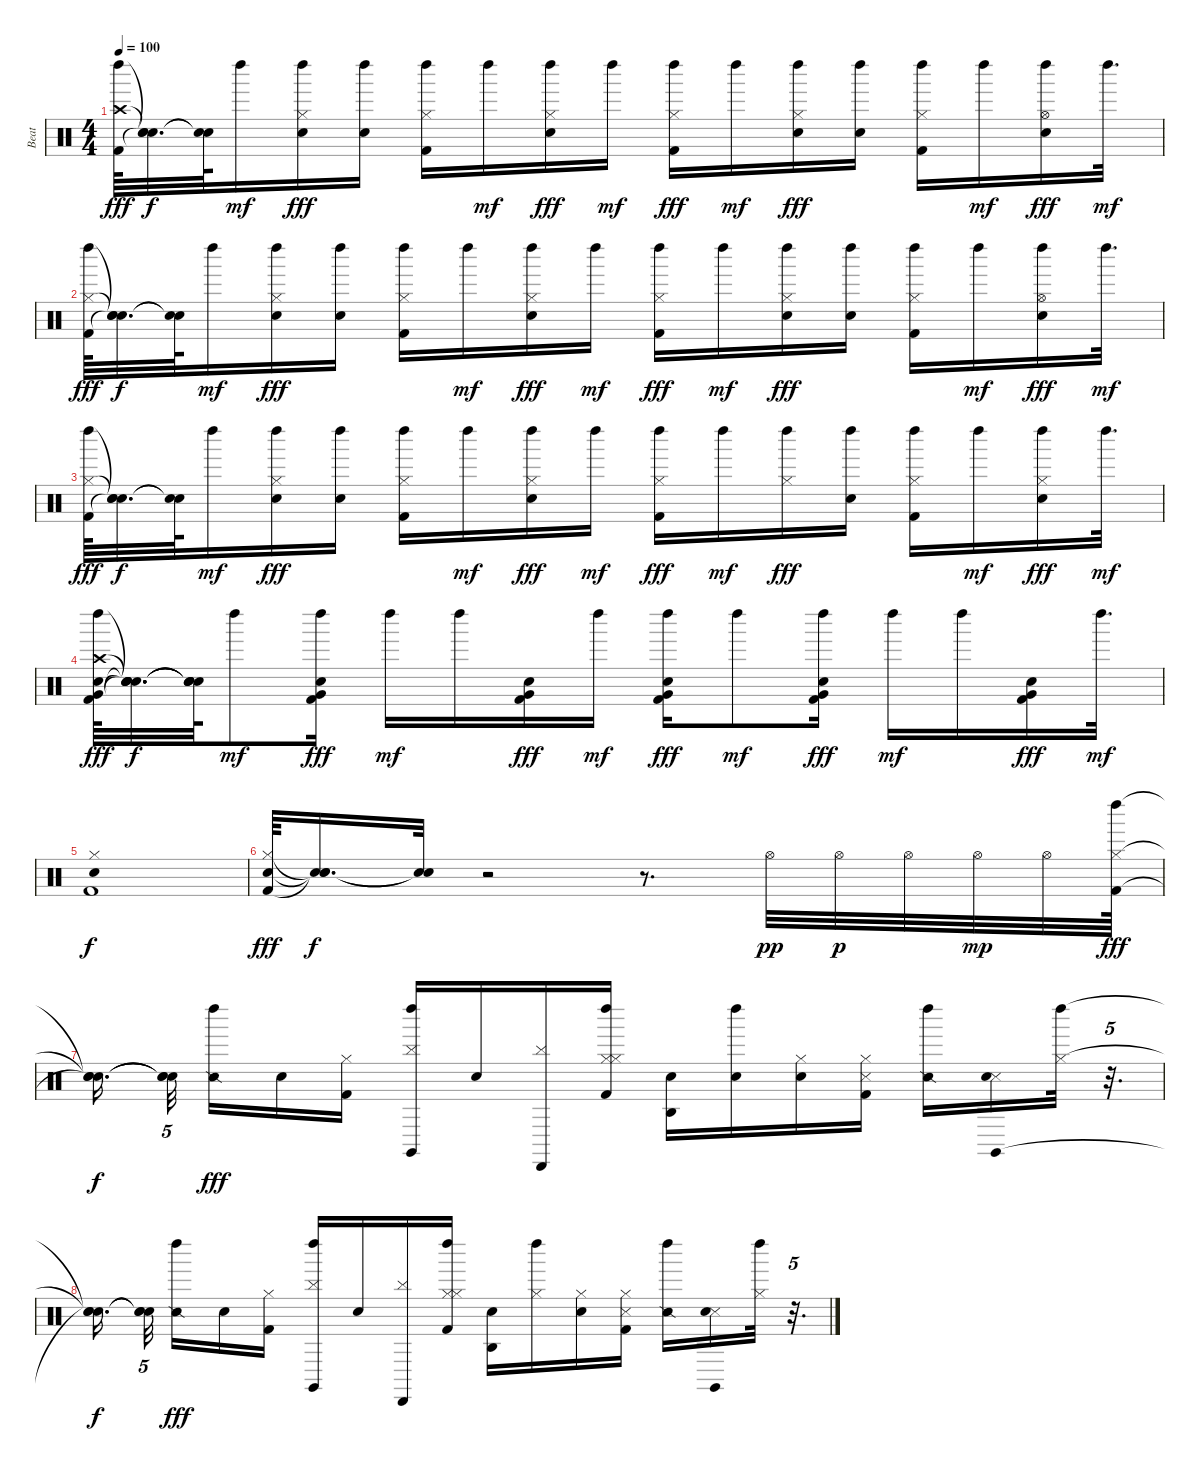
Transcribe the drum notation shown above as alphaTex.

\track ("Beat" "Beat") {instrument percussion}
\staff {score}
\articulation defaults
\ts (4 4)
\tempo 100
\clef neutral
\ks c
("Left Maraca (hit)" "Crash high (hit)" "Kick (hit) 2").64{dy fff} ("Snare (hit)"{t} "Snare (hit)"{t} "Snare (hit)"{t}).32{d dy f} ("Snare (hit)"{t} "Snare (hit)"{t}).64 "Left Maraca (hit)".16{dy mf} ("Electric Snare (hit)" "Left Maraca (hit)" "Hi-Hat (closed)").16{dy fff} ("Left Maraca (hit)" "Electric Snare (hit)").16 ("Left Maraca (hit)" "Kick (hit) 2" "Hi-Hat (closed)").16 "Left Maraca (hit)".16{dy mf} ("Left Maraca (hit)" "Hi-Hat (closed)" "Electric Snare (hit)").16{dy fff} "Left Maraca (hit)".16{dy mf} ("Left Maraca (hit)" "Hi-Hat (closed)" "Kick (hit) 2").16{dy fff} "Left Maraca (hit)".16{dy mf} ("Electric Snare (hit)" "Left Maraca (hit)" "Hi-Hat (closed)").16{dy fff} ("Left Maraca (hit)" "Electric Snare (hit)").16 ("Left Maraca (hit)" "Kick (hit) 2" "Hi-Hat (closed)").16 "Left Maraca (hit)".16{dy mf} ("Left Maraca (hit)" "Hi-Hat (open)" "Electric Snare (hit)").16{dy fff} "Left Maraca (hit)".32{d dy mf} |
("Left Maraca (hit)" "Hi-Hat (closed)" "Kick (hit) 2").64{dy fff} ("Snare (hit)"{t} "Snare (hit)"{t} "Snare (hit)"{t}).32{d dy f} ("Snare (hit)"{t} "Snare (hit)"{t}).64 "Left Maraca (hit)".16{dy mf} ("Electric Snare (hit)" "Left Maraca (hit)" "Hi-Hat (closed)").16{dy fff} ("Left Maraca (hit)" "Electric Snare (hit)").16 ("Left Maraca (hit)" "Kick (hit) 2" "Hi-Hat (closed)").16 "Left Maraca (hit)".16{dy mf} ("Left Maraca (hit)" "Hi-Hat (closed)" "Electric Snare (hit)").16{dy fff} "Left Maraca (hit)".16{dy mf} ("Left Maraca (hit)" "Hi-Hat (closed)" "Kick (hit) 2").16{dy fff} "Left Maraca (hit)".16{dy mf} ("Electric Snare (hit)" "Left Maraca (hit)" "Hi-Hat (closed)").16{dy fff} ("Left Maraca (hit)" "Electric Snare (hit)").16 ("Left Maraca (hit)" "Kick (hit) 2" "Hi-Hat (closed)").16 "Left Maraca (hit)".16{dy mf} ("Left Maraca (hit)" "Hi-Hat (open)" "Electric Snare (hit)").16{dy fff} "Left Maraca (hit)".32{d dy mf} |
("Left Maraca (hit)" "Hi-Hat (closed)" "Kick (hit) 2").64{dy fff} ("Snare (hit)"{t} "Snare (hit)"{t} "Snare (hit)"{t}).32{d dy f} ("Snare (hit)"{t} "Snare (hit)"{t}).64 "Left Maraca (hit)".16{dy mf} ("Electric Snare (hit)" "Left Maraca (hit)" "Hi-Hat (closed)").16{dy fff} ("Left Maraca (hit)" "Electric Snare (hit)").16 ("Left Maraca (hit)" "Kick (hit) 2" "Hi-Hat (closed)").16 "Left Maraca (hit)".16{dy mf} ("Left Maraca (hit)" "Hi-Hat (closed)" "Electric Snare (hit)").16{dy fff} "Left Maraca (hit)".16{dy mf} ("Left Maraca (hit)" "Hi-Hat (closed)" "Kick (hit) 2").16{dy fff} "Left Maraca (hit)".16{dy mf} ("Left Maraca (hit)" "Hi-Hat (closed)").16{dy fff} ("Left Maraca (hit)" "Electric Snare (hit)").16 ("Left Maraca (hit)" "Kick (hit) 2" "Hi-Hat (closed)").16 "Left Maraca (hit)".16{dy mf} ("Left Maraca (hit)" "Hi-Hat (closed)" "Electric Snare (hit)").16{dy fff} "Left Maraca (hit)".32{d dy mf} |
("Left Maraca (hit)" "Very Low Tom (hit)" "Electric Snare (hit)" "Crash high (hit)" "Kick (hit) 2").64{dy fff} ("Snare (hit)"{t} "Snare (hit)"{t} "Snare (hit)"{t} "Snare (hit)"{t} "Snare (hit)"{t}).32{d dy f} ("Snare (hit)"{t} "Snare (hit)"{t} "Snare (hit)"{t} "Snare (hit)"{t}).64 "Left Maraca (hit)".8{dy mf} ("Left Maraca (hit)" "Very Low Tom (hit)" "Kick (hit) 2" "Electric Snare (hit)").16{dy fff} "Left Maraca (hit)".16{dy mf} "Left Maraca (hit)".16 ("Very Low Tom (hit)" "Kick (hit) 2" "Electric Snare (hit)").16{dy fff} "Left Maraca (hit)".16{dy mf} ("Left Maraca (hit)" "Very Low Tom (hit)" "Electric Snare (hit)" "Kick (hit) 2").16{dy fff} "Left Maraca (hit)".8{dy mf} ("Left Maraca (hit)" "Very Low Tom (hit)" "Kick (hit) 2" "Electric Snare (hit)").16{dy fff} "Left Maraca (hit)".16{dy mf} "Left Maraca (hit)".16 ("Very Low Tom (hit)" "Electric Snare (hit)" "Kick (hit) 2").16{dy fff} "Left Maraca (hit)".32{d dy mf} |
("Hi-Hat (closed)" "Metronome (bell)" "Kick (hit) 2").1{dy f} |
("Metronome (bell)" "Hi-Hat (closed)" "Kick (hit) 2").64{dy fff} ("Snare (hit)"{t} "Snare (hit)"{t} "Snare (hit)"{t}).16{d dy f} ("Snare (hit)"{t} "Snare (hit)"{t}).32 r.2 r.8{d} "Hi-Hat (open)".32{dy pp} "Hi-Hat (open)".32{dy p} "Hi-Hat (open)".32 "Hi-Hat (open)".32{dy mp} "Hi-Hat (open)".32 ("Left Maraca (hit)" "Hi-Hat (closed)" "Kick (hit) 2").64{dy fff} |
("Snare (hit)"{t} "Snare (hit)"{t} "Snare (hit)"{t}).16{d dy f beam splitsecondary} ("Snare (hit)"{t} "Snare (hit)"{t} "Snare (hit)"{t}).32{tu (5 4) beam splitsecondary} ("Left Maraca (hit)" "Snare (side stick) 2").16{dy fff} "Electric Snare (hit)".16 ("Kick (hit) 2" "Hi-Hat (closed)").16 ("Claves (hit)" "Left Maraca (hit)" "Cymbal (hit)").16 "Electric Snare (hit)".16 ("Cymbal (hit)" "Cabasa (hit)").16 ("Left Maraca (hit)" "Hi-Hat (closed)" "Hi-Hat (closed)" "Kick (hit) 2").16 ("Agogo high (hit)" "Electric Snare (hit)").16 ("Left Maraca (hit)" "Snare (hit)").16 ("Hi-Hat (closed)" "Electric Snare (hit)").16 ("Metronome (hit)" "Hi-Hat (closed)" "Kick (hit) 2").16 ("Left Maraca (hit)" "Snare (side stick) 2").16 ("Metronome (hit)" "Electric Snare (hit)" "Claves (hit)").16 ("Left Maraca (hit)" "Hi-Hat (closed)").32 r.32{d tu (5 4)} |
("Snare (hit)"{t} "Snare (hit)"{t} "Snare (hit)"{t}).16{d dy f beam splitsecondary} ("Snare (hit)"{t} "Snare (hit)"{t} "Snare (hit)"{t}).32{tu (5 4) beam splitsecondary} ("Left Maraca (hit)" "Snare (side stick) 2").16{dy fff} "Electric Snare (hit)".16 ("Kick (hit) 2" "Hi-Hat (closed)").16 ("Claves (hit)" "Left Maraca (hit)" "Cymbal (hit)").16 "Electric Snare (hit)".16 ("Cymbal (hit)" "Cabasa (hit)").16 ("Left Maraca (hit)" "Hi-Hat (closed)" "Hi-Hat (closed)" "Kick (hit) 2").16 ("Agogo high (hit)" "Electric Snare (hit)").16 ("Left Maraca (hit)" "Hi-Hat (closed)").16 ("Hi-Hat (closed)" "Electric Snare (hit)").16 ("Metronome (hit)" "Hi-Hat (closed)" "Kick (hit) 2").16 ("Left Maraca (hit)" "Snare (side stick) 2").16 ("Metronome (hit)" "Electric Snare (hit)" "Claves (hit)").16 ("Left Maraca (hit)" "Hi-Hat (closed)").32 r.32{d tu (5 4)}
